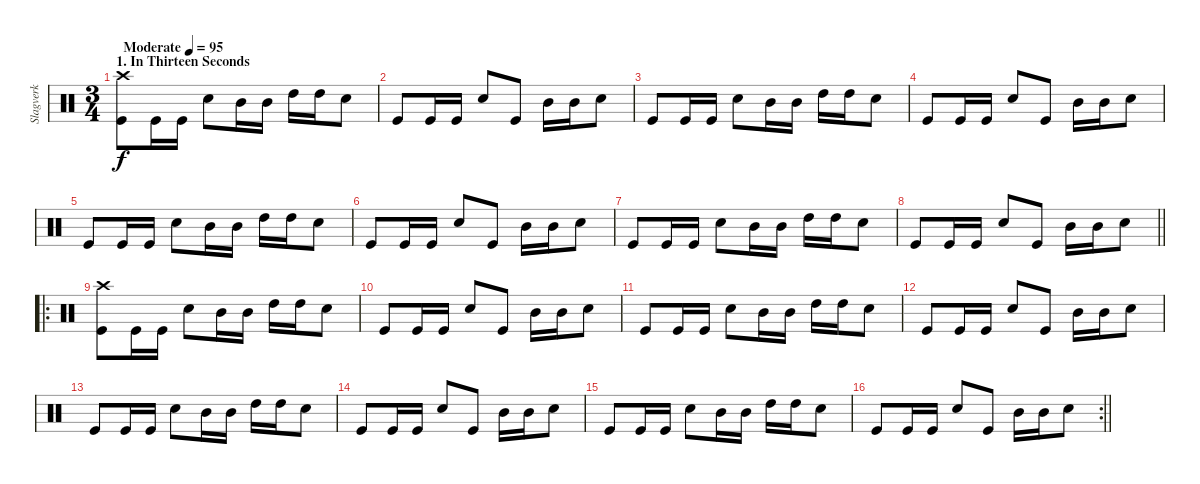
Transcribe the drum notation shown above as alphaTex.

\track ("Slagverk" "Slagverk") {instrument percussion}
\staff {score}
\articulation defaults
\ts (3 4)
\section ("" "1. In Thirteen Seconds")
\tempo (95 "Moderate")
\clef neutral
\ks c
("Crash high (hit)" "Kick (hit)").8{dy f} "Kick (hit)".16 "Kick (hit)".16 "Snare (hit) 2".8 "Mid Tom (hit)".16 "Mid Tom (hit)".16 "High Tom (hit)".16 "High Tom (hit)".16 "Snare (hit) 2".8 |
"Kick (hit)".8 "Kick (hit)".16 "Kick (hit)".16 "Snare (hit) 2".8 "Kick (hit)".8 "Mid Tom (hit)".16 "Mid Tom (hit)".16 "Snare (hit) 2".8 |
"Kick (hit)".8 "Kick (hit)".16 "Kick (hit)".16 "Snare (hit) 2".8 "Mid Tom (hit)".16 "Mid Tom (hit)".16 "High Tom (hit)".16 "High Tom (hit)".16 "Snare (hit) 2".8 |
"Kick (hit)".8 "Kick (hit)".16 "Kick (hit)".16 "Snare (hit) 2".8 "Kick (hit)".8 "Mid Tom (hit)".16 "Mid Tom (hit)".16 "Snare (hit) 2".8 |
"Kick (hit)".8 "Kick (hit)".16 "Kick (hit)".16 "Snare (hit) 2".8 "Mid Tom (hit)".16 "Mid Tom (hit)".16 "High Tom (hit)".16 "High Tom (hit)".16 "Snare (hit) 2".8 |
"Kick (hit)".8 "Kick (hit)".16 "Kick (hit)".16 "Snare (hit) 2".8 "Kick (hit)".8 "Mid Tom (hit)".16 "Mid Tom (hit)".16 "Snare (hit) 2".8 |
"Kick (hit)".8 "Kick (hit)".16 "Kick (hit)".16 "Snare (hit) 2".8 "Mid Tom (hit)".16 "Mid Tom (hit)".16 "High Tom (hit)".16 "High Tom (hit)".16 "Snare (hit) 2".8 |
\barLineRight lightlight "Kick (hit)".8 "Kick (hit)".16 "Kick (hit)".16 "Snare (hit) 2".8 "Kick (hit)".8 "Mid Tom (hit)".16 "Mid Tom (hit)".16 "Snare (hit) 2".8
|
\ro
\section ("" "")
("Crash high (hit)" "Kick (hit)").8 "Kick (hit)".16 "Kick (hit)".16 "Snare (hit) 2".8 "Mid Tom (hit)".16 "Mid Tom (hit)".16 "High Tom (hit)".16 "High Tom (hit)".16 "Snare (hit) 2".8 |
"Kick (hit)".8 "Kick (hit)".16 "Kick (hit)".16 "Snare (hit) 2".8 "Kick (hit)".8 "Mid Tom (hit)".16 "Mid Tom (hit)".16 "Snare (hit) 2".8 |
"Kick (hit)".8 "Kick (hit)".16 "Kick (hit)".16 "Snare (hit) 2".8 "Mid Tom (hit)".16 "Mid Tom (hit)".16 "High Tom (hit)".16 "High Tom (hit)".16 "Snare (hit) 2".8 |
"Kick (hit)".8 "Kick (hit)".16 "Kick (hit)".16 "Snare (hit) 2".8 "Kick (hit)".8 "Mid Tom (hit)".16 "Mid Tom (hit)".16 "Snare (hit) 2".8 |
"Kick (hit)".8 "Kick (hit)".16 "Kick (hit)".16 "Snare (hit) 2".8 "Mid Tom (hit)".16 "Mid Tom (hit)".16 "High Tom (hit)".16 "High Tom (hit)".16 "Snare (hit) 2".8 |
"Kick (hit)".8 "Kick (hit)".16 "Kick (hit)".16 "Snare (hit) 2".8 "Kick (hit)".8 "Mid Tom (hit)".16 "Mid Tom (hit)".16 "Snare (hit) 2".8 |
"Kick (hit)".8 "Kick (hit)".16 "Kick (hit)".16 "Snare (hit) 2".8 "Mid Tom (hit)".16 "Mid Tom (hit)".16 "High Tom (hit)".16 "High Tom (hit)".16 "Snare (hit) 2".8 |
\rc 2
\barLineRight lightlight "Kick (hit)".8 "Kick (hit)".16 "Kick (hit)".16 "Snare (hit) 2".8 "Kick (hit)".8 "Mid Tom (hit)".16 "Mid Tom (hit)".16 "Snare (hit) 2".8
